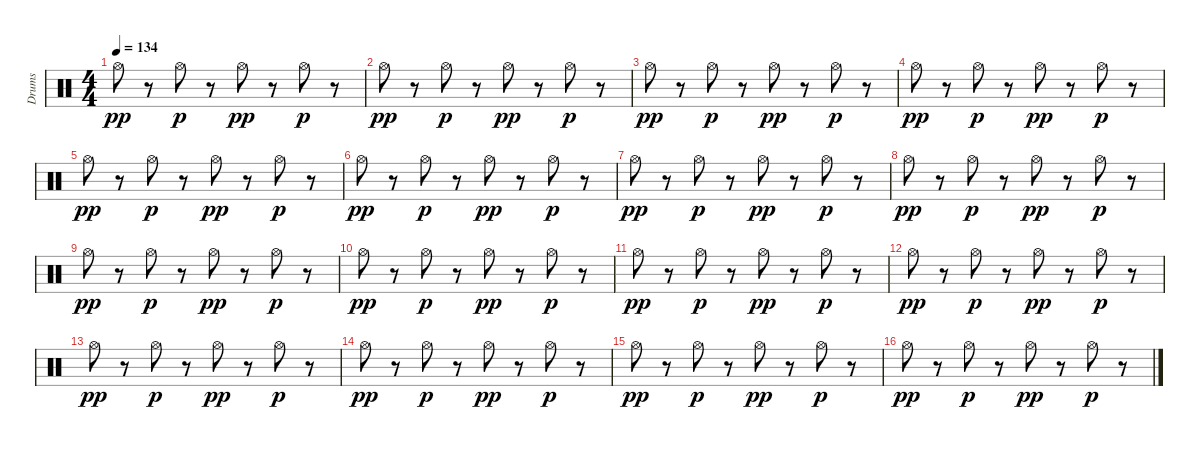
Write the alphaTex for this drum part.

\track ("Drums" "Drums") {instrument percussion}
\staff {score}
\articulation defaults
\ts (4 4)
\tempo 134
\clef neutral
\ks c "Hi-Hat (open)".8{dy pp}
r.8 "Hi-Hat (open)".8{dy p} r.8 "Hi-Hat (open)".8{dy pp} r.8 "Hi-Hat (open)".8{dy p} r.8 |
"Hi-Hat (open)".8{dy pp} r.8 "Hi-Hat (open)".8{dy p} r.8 "Hi-Hat (open)".8{dy pp} r.8 "Hi-Hat (open)".8{dy p} r.8 |
"Hi-Hat (open)".8{dy pp} r.8 "Hi-Hat (open)".8{dy p} r.8 "Hi-Hat (open)".8{dy pp} r.8 "Hi-Hat (open)".8{dy p} r.8 |
"Hi-Hat (open)".8{dy pp} r.8 "Hi-Hat (open)".8{dy p} r.8 "Hi-Hat (open)".8{dy pp} r.8 "Hi-Hat (open)".8{dy p} r.8 |
"Hi-Hat (open)".8{dy pp} r.8 "Hi-Hat (open)".8{dy p} r.8 "Hi-Hat (open)".8{dy pp} r.8 "Hi-Hat (open)".8{dy p} r.8 |
"Hi-Hat (open)".8{dy pp} r.8 "Hi-Hat (open)".8{dy p} r.8 "Hi-Hat (open)".8{dy pp} r.8 "Hi-Hat (open)".8{dy p} r.8 |
"Hi-Hat (open)".8{dy pp} r.8 "Hi-Hat (open)".8{dy p} r.8 "Hi-Hat (open)".8{dy pp} r.8 "Hi-Hat (open)".8{dy p} r.8 |
"Hi-Hat (open)".8{dy pp} r.8 "Hi-Hat (open)".8{dy p} r.8 "Hi-Hat (open)".8{dy pp} r.8 "Hi-Hat (open)".8{dy p} r.8 |
"Hi-Hat (open)".8{dy pp} r.8 "Hi-Hat (open)".8{dy p} r.8 "Hi-Hat (open)".8{dy pp} r.8 "Hi-Hat (open)".8{dy p} r.8 |
"Hi-Hat (open)".8{dy pp} r.8 "Hi-Hat (open)".8{dy p} r.8 "Hi-Hat (open)".8{dy pp} r.8 "Hi-Hat (open)".8{dy p} r.8 |
"Hi-Hat (open)".8{dy pp} r.8 "Hi-Hat (open)".8{dy p} r.8 "Hi-Hat (open)".8{dy pp} r.8 "Hi-Hat (open)".8{dy p} r.8 |
"Hi-Hat (open)".8{dy pp} r.8 "Hi-Hat (open)".8{dy p} r.8 "Hi-Hat (open)".8{dy pp} r.8 "Hi-Hat (open)".8{dy p} r.8 |
"Hi-Hat (open)".8{dy pp} r.8 "Hi-Hat (open)".8{dy p} r.8 "Hi-Hat (open)".8{dy pp} r.8 "Hi-Hat (open)".8{dy p} r.8 |
"Hi-Hat (open)".8{dy pp} r.8 "Hi-Hat (open)".8{dy p} r.8 "Hi-Hat (open)".8{dy pp} r.8 "Hi-Hat (open)".8{dy p} r.8 |
"Hi-Hat (open)".8{dy pp} r.8 "Hi-Hat (open)".8{dy p} r.8 "Hi-Hat (open)".8{dy pp} r.8 "Hi-Hat (open)".8{dy p} r.8 |
"Hi-Hat (open)".8{dy pp} r.8 "Hi-Hat (open)".8{dy p} r.8 "Hi-Hat (open)".8{dy pp} r.8 "Hi-Hat (open)".8{dy p} r.8
